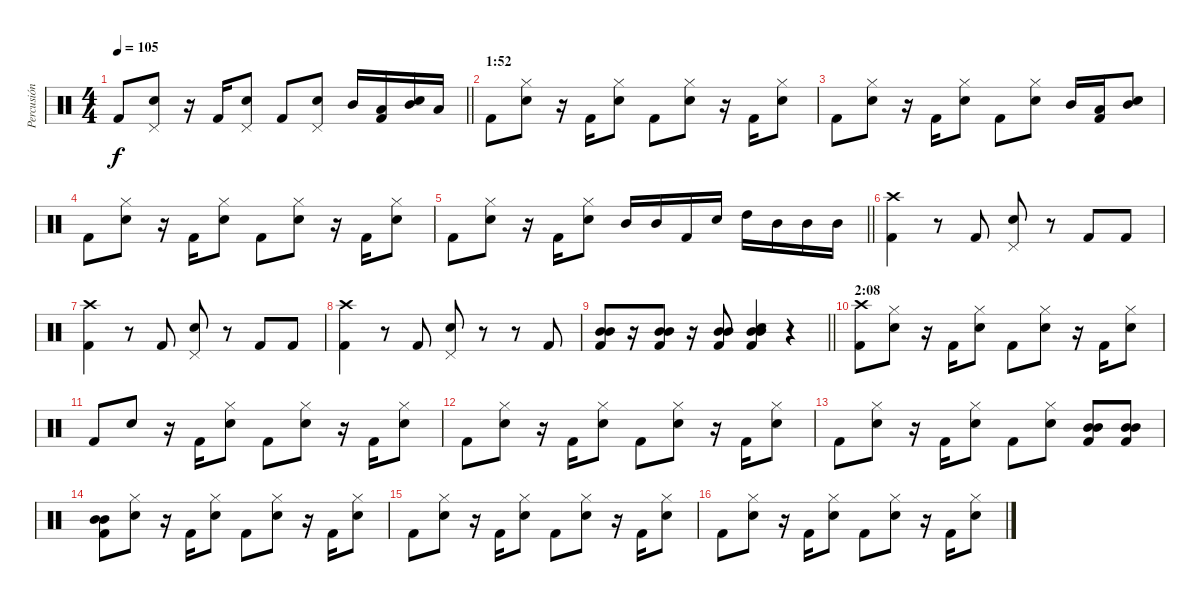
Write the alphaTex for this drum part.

\track ("Percusión" "Percusión") {instrument percussion}
\staff {score}
\articulation defaults
\ts (4 4)
\tempo 105
\clef neutral
\barLineRight lightlight
\ks c "Kick (hit) 2".8{dy f}
("Snare (hit) 2" "Pedal Hi-Hat (hit)").8 r.16 "Kick (hit) 2".16 ("Snare (hit) 2" "Pedal Hi-Hat (hit)").8 "Kick (hit) 2".8 ("Snare (hit) 2" "Pedal Hi-Hat (hit)").8 "Mid Tom (hit)".16 ("Kick (hit) 2" "Low Tom (hit)").16 ("Snare (hit) 2" "Mid Tom (hit)").16 "Low Tom (hit)".16 |
\section ("" "1:52")
"Kick (hit) 2".8 ("Snare (hit) 2" "Hi-Hat (closed)").8 r.16 "Kick (hit) 2".16 ("Snare (hit) 2" "Hi-Hat (closed)").8 "Kick (hit) 2".8 ("Snare (hit) 2" "Hi-Hat (closed)").8 r.16 "Kick (hit) 2".16 ("Snare (hit) 2" "Hi-Hat (closed)").8 |
"Kick (hit) 2".8 ("Snare (hit) 2" "Hi-Hat (closed)").8 r.16 "Kick (hit) 2".16 ("Snare (hit) 2" "Hi-Hat (closed)").8 "Kick (hit) 2".8 ("Snare (hit) 2" "Hi-Hat (closed)").8 "Mid Tom (hit)".16 ("Kick (hit) 2" "Low Tom (hit)").16 ("Snare (hit) 2" "Mid Tom (hit)").8 |
"Kick (hit) 2".8 ("Snare (hit) 2" "Hi-Hat (closed)").8 r.16 "Kick (hit) 2".16 ("Snare (hit) 2" "Hi-Hat (closed)").8 "Kick (hit) 2".8 ("Snare (hit) 2" "Hi-Hat (closed)").8 r.16 "Kick (hit) 2".16 ("Snare (hit) 2" "Hi-Hat (closed)").8 |
\barLineRight lightlight "Kick (hit) 2".8
("Snare (hit) 2" "Hi-Hat (closed)").8 r.16 "Kick (hit) 2".16 ("Snare (hit) 2" "Hi-Hat (closed)").8 "Mid Tom (hit)".16 "Mid Tom (hit)".16 "Kick (hit) 2".16 "Snare (hit) 2".16 "High Tom (hit)".16 "Mid Tom (hit)".16 "Mid Tom (hit)".16 "Mid Tom (hit)".16 |
("Kick (hit) 2" "Crash high (hit)").4 r.8 "Kick (hit) 2".8 ("Snare (hit) 2" "Pedal Hi-Hat (hit)").8 r.8 "Kick (hit) 2".8 "Kick (hit) 2".8 |
("Kick (hit) 2" "Crash high (hit)").4 r.8 "Kick (hit) 2".8 ("Snare (hit) 2" "Pedal Hi-Hat (hit)").8 r.8 "Kick (hit) 2".8 "Kick (hit) 2".8 |
("Kick (hit) 2" "Crash high (hit)").4 r.8 "Kick (hit) 2".8 ("Snare (hit) 2" "Pedal Hi-Hat (hit)").8 r.8 r.8 "Kick (hit) 2".8 |
\barLineRight lightlight
("Kick (hit) 2" "Mid Tom (hit)" "Mid Tom (hit)").8 r.16 ("Kick (hit) 2" "Mid Tom (hit)" "Mid Tom (hit)").8 r.16 ("Kick (hit) 2" "Mid Tom (hit)" "Mid Tom (hit)").8 ("Kick (hit) 2" "Snare (hit) 2" "Mid Tom (hit)" "Mid Tom (hit)").4 r.4 |
\section ("" "2:08")
("Kick (hit) 2" "Crash high (hit)").8 ("Snare (hit) 2" "Hi-Hat (closed)").8 r.16 "Kick (hit) 2".16 ("Snare (hit) 2" "Hi-Hat (closed)").8 "Kick (hit) 2".8 ("Snare (hit) 2" "Hi-Hat (closed)").8 r.16 "Kick (hit) 2".16 ("Snare (hit) 2" "Hi-Hat (closed)").8 |
"Kick (hit) 2".8 "Snare (hit) 2".8 r.16 "Kick (hit) 2".16 ("Snare (hit) 2" "Hi-Hat (closed)").8 "Kick (hit) 2".8 ("Snare (hit) 2" "Hi-Hat (closed)").8 r.16 "Kick (hit) 2".16 ("Snare (hit) 2" "Hi-Hat (closed)").8 |
"Kick (hit) 2".8 ("Snare (hit) 2" "Hi-Hat (closed)").8 r.16 "Kick (hit) 2".16 ("Snare (hit) 2" "Hi-Hat (closed)").8 "Kick (hit) 2".8 ("Snare (hit) 2" "Hi-Hat (closed)").8 r.16 "Kick (hit) 2".16 ("Snare (hit) 2" "Hi-Hat (closed)").8 |
"Kick (hit) 2".8 ("Snare (hit) 2" "Hi-Hat (closed)").8 r.16 "Kick (hit) 2".16 ("Snare (hit) 2" "Hi-Hat (closed)").8 "Kick (hit) 2".8 ("Snare (hit) 2" "Hi-Hat (closed)").8 ("Kick (hit) 2" "Mid Tom (hit)" "Mid Tom (hit)").8 ("Kick (hit) 2" "Mid Tom (hit)" "Mid Tom (hit)").8 |
("Kick (hit) 2" "Mid Tom (hit)" "Mid Tom (hit)").8 ("Snare (hit) 2" "Hi-Hat (closed)").8 r.16 "Kick (hit) 2".16 ("Snare (hit) 2" "Hi-Hat (closed)").8 "Kick (hit) 2".8 ("Snare (hit) 2" "Hi-Hat (closed)").8 r.16 "Kick (hit) 2".16 ("Snare (hit) 2" "Hi-Hat (closed)").8 |
"Kick (hit) 2".8 ("Snare (hit) 2" "Hi-Hat (closed)").8 r.16 "Kick (hit) 2".16 ("Snare (hit) 2" "Hi-Hat (closed)").8 "Kick (hit) 2".8 ("Snare (hit) 2" "Hi-Hat (closed)").8 r.16 "Kick (hit) 2".16 ("Snare (hit) 2" "Hi-Hat (closed)").8 |
"Kick (hit) 2".8 ("Snare (hit) 2" "Hi-Hat (closed)").8 r.16 "Kick (hit) 2".16 ("Snare (hit) 2" "Hi-Hat (closed)").8 "Kick (hit) 2".8 ("Snare (hit) 2" "Hi-Hat (closed)").8 r.16 "Kick (hit) 2".16 ("Snare (hit) 2" "Hi-Hat (closed)").8
